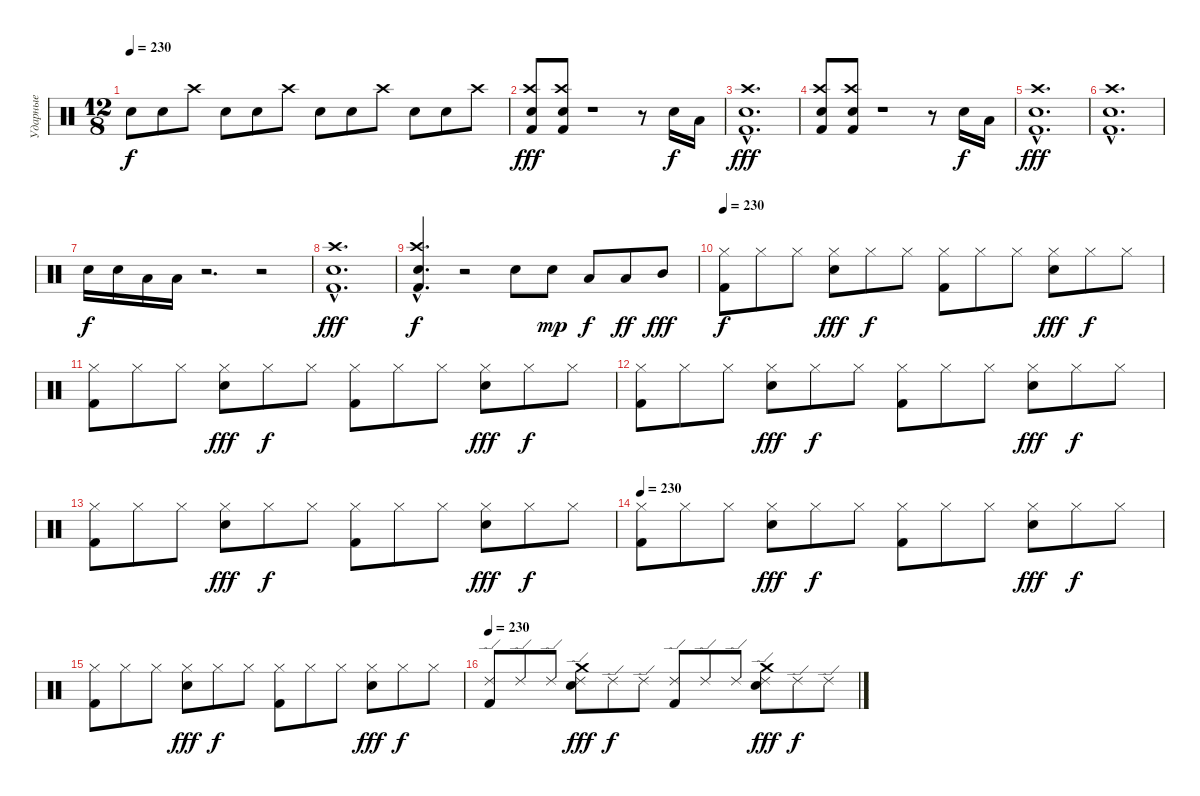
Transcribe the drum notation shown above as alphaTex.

\track ("Ударные" "Ударные") {instrument percussion}
\staff {score}
\articulation defaults
\ts (12 8)
\tempo 230
\clef neutral
\ks c "Snare (hit) 2".8{dy f} "Snare (hit) 2".8 "Crash high (hit)".8 "Snare (hit) 2".8 "Snare (hit) 2".8 "Crash high (hit)".8 "Snare (hit) 2".8 "Snare (hit) 2".8 "Crash high (hit)".8 "Snare (hit) 2".8 "Snare (hit) 2".8 "Crash high (hit)".8
|
("Crash high (hit)" "Snare (hit) 2" "Kick (hit) 2").8{dy fff} ("Crash high (hit)" "Snare (hit) 2" "Kick (hit) 2").8 r.1 r.8 "Snare (hit) 2".16{dy f} "Low Floor Tom (hit)".16 |
("Crash high (hit)"{hac} "Snare (hit) 2"{hac} "Kick (hit) 2"{hac}).1{d dy fff} |
("Crash high (hit)" "Snare (hit) 2" "Kick (hit) 2").8 ("Crash high (hit)" "Snare (hit) 2" "Kick (hit) 2").8 r.1 r.8 "Snare (hit) 2".16{dy f} "Low Floor Tom (hit)".16 |
("Crash high (hit)"{hac} "Snare (hit) 2"{hac} "Kick (hit) 2"{hac}).1{d dy fff} |
("Crash high (hit)"{hac} "Snare (hit) 2"{hac} "Kick (hit) 2"{hac}).1{d} |
"Snare (hit) 2".16{dy f} "Snare (hit) 2".16 "Low Floor Tom (hit)".16 "Low Tom (hit)".16 r.2{d} r.2 |
("Crash high (hit)"{hac} "Snare (hit) 2"{hac} "Kick (hit) 2"{hac}).1{d dy fff} |
("Crash high (hit)"{hac} "Snare (hit) 2"{hac} "Kick (hit) 2"{hac}).4{d dy f} r.2 "Snare (hit) 2".8 "Snare (hit) 2".8{dy mp} "Low Floor Tom (hit)".8{dy f} "Low Tom (hit)".8{dy ff} "Mid Tom (hit)".8{dy fff} |
\tempo 230
("Hi-Hat (closed)" "Kick (hit) 2").8{dy f} "Hi-Hat (closed)".8 "Hi-Hat (closed)".8 ("Hi-Hat (closed)" "Snare (hit) 2").8{dy fff} "Hi-Hat (closed)".8{dy f} "Hi-Hat (closed)".8 ("Hi-Hat (closed)" "Kick (hit) 2").8 "Hi-Hat (closed)".8 "Hi-Hat (closed)".8 ("Hi-Hat (closed)" "Snare (hit) 2").8{dy fff} "Hi-Hat (closed)".8{dy f} "Hi-Hat (closed)".8 |
("Hi-Hat (closed)" "Kick (hit) 2").8 "Hi-Hat (closed)".8 "Hi-Hat (closed)".8 ("Hi-Hat (closed)" "Snare (hit) 2").8{dy fff} "Hi-Hat (closed)".8{dy f} "Hi-Hat (closed)".8 ("Hi-Hat (closed)" "Kick (hit) 2").8 "Hi-Hat (closed)".8 "Hi-Hat (closed)".8 ("Hi-Hat (closed)" "Snare (hit) 2").8{dy fff} "Hi-Hat (closed)".8{dy f} "Hi-Hat (closed)".8 |
("Hi-Hat (closed)" "Kick (hit) 2").8 "Hi-Hat (closed)".8 "Hi-Hat (closed)".8 ("Hi-Hat (closed)" "Snare (hit) 2").8{dy fff} "Hi-Hat (closed)".8{dy f} "Hi-Hat (closed)".8 ("Hi-Hat (closed)" "Kick (hit) 2").8 "Hi-Hat (closed)".8 "Hi-Hat (closed)".8 ("Hi-Hat (closed)" "Snare (hit) 2").8{dy fff} "Hi-Hat (closed)".8{dy f} "Hi-Hat (closed)".8 |
("Hi-Hat (closed)" "Kick (hit) 2").8 "Hi-Hat (closed)".8 "Hi-Hat (closed)".8 ("Hi-Hat (closed)" "Snare (hit) 2").8{dy fff} "Hi-Hat (closed)".8{dy f} "Hi-Hat (closed)".8 ("Hi-Hat (closed)" "Kick (hit) 2").8 "Hi-Hat (closed)".8 "Hi-Hat (closed)".8 ("Hi-Hat (closed)" "Snare (hit) 2").8{dy fff} "Hi-Hat (closed)".8{dy f} "Hi-Hat (closed)".8 |
\tempo 230
("Hi-Hat (closed)" "Kick (hit) 2").8 "Hi-Hat (closed)".8 "Hi-Hat (closed)".8 ("Hi-Hat (closed)" "Snare (hit) 2").8{dy fff} "Hi-Hat (closed)".8{dy f} "Hi-Hat (closed)".8 ("Hi-Hat (closed)" "Kick (hit) 2").8 "Hi-Hat (closed)".8 "Hi-Hat (closed)".8 ("Hi-Hat (closed)" "Snare (hit) 2").8{dy fff} "Hi-Hat (closed)".8{dy f} "Hi-Hat (closed)".8 |
("Hi-Hat (closed)" "Kick (hit) 2").8 "Hi-Hat (closed)".8 "Hi-Hat (closed)".8 ("Hi-Hat (closed)" "Snare (hit) 2").8{dy fff} "Hi-Hat (closed)".8{dy f} "Hi-Hat (closed)".8 ("Hi-Hat (closed)" "Kick (hit) 2").8 "Hi-Hat (closed)".8 "Hi-Hat (closed)".8 ("Hi-Hat (closed)" "Snare (hit) 2").8{dy fff} "Hi-Hat (closed)".8{dy f} "Hi-Hat (closed)".8 |
\tempo 230
("Ride (edge) 2" "Kick (hit) 2").8 "Ride (edge) 2".8 "Ride (edge) 2".8 ("Ride (edge) 2" "Snare (hit) 2" "Crash medium (hit)").8{dy fff} "Ride (edge) 2".8{dy f} "Ride (edge) 2".8 ("Ride (edge) 2" "Kick (hit) 2").8 "Ride (edge) 2".8 "Ride (edge) 2".8 ("Ride (edge) 2" "Snare (hit) 2" "Crash medium (hit)").8{dy fff} "Ride (edge) 2".8{dy f} "Ride (edge) 2".8
